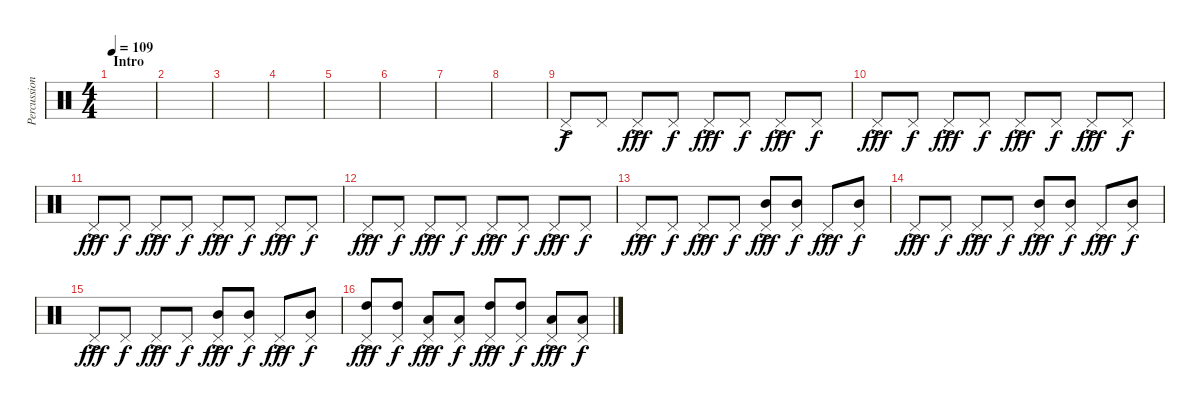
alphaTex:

\track ("Percussions" "Percussion") {instrument percussion}
\staff {score}
\articulation defaults
\ts (4 4)
\section ("" "Intro")
\tempo 109
\clef neutral
\ks c
|
|
|
|
|
|
|
|
"Pedal Hi-Hat (hit)"{ac}.8 "Pedal Hi-Hat (hit)".8{dy f} "Pedal Hi-Hat (hit)"{ac}.8{dy fff} "Pedal Hi-Hat (hit)".8{dy f} "Pedal Hi-Hat (hit)"{ac}.8{dy fff} "Pedal Hi-Hat (hit)".8{dy f} "Pedal Hi-Hat (hit)"{ac}.8{dy fff} "Pedal Hi-Hat (hit)".8{dy f} |
"Pedal Hi-Hat (hit)"{ac}.8{dy fff} "Pedal Hi-Hat (hit)".8{dy f} "Pedal Hi-Hat (hit)"{ac}.8{dy fff} "Pedal Hi-Hat (hit)".8{dy f} "Pedal Hi-Hat (hit)"{ac}.8{dy fff} "Pedal Hi-Hat (hit)".8{dy f} "Pedal Hi-Hat (hit)"{ac}.8{dy fff} "Pedal Hi-Hat (hit)".8{dy f} |
"Pedal Hi-Hat (hit)"{ac}.8{dy fff} "Pedal Hi-Hat (hit)".8{dy f} "Pedal Hi-Hat (hit)"{ac}.8{dy fff} "Pedal Hi-Hat (hit)".8{dy f} "Pedal Hi-Hat (hit)"{ac}.8{dy fff} "Pedal Hi-Hat (hit)".8{dy f} "Pedal Hi-Hat (hit)"{ac}.8{dy fff} "Pedal Hi-Hat (hit)".8{dy f} |
"Pedal Hi-Hat (hit)"{ac}.8{dy fff} "Pedal Hi-Hat (hit)".8{dy f} "Pedal Hi-Hat (hit)"{ac}.8{dy fff} "Pedal Hi-Hat (hit)".8{dy f} "Pedal Hi-Hat (hit)"{ac}.8{dy fff} "Pedal Hi-Hat (hit)".8{dy f} "Pedal Hi-Hat (hit)"{ac}.8{dy fff} "Pedal Hi-Hat (hit)".8{dy f} |
"Pedal Hi-Hat (hit)"{ac}.8{dy fff} "Pedal Hi-Hat (hit)".8{dy f} "Pedal Hi-Hat (hit)"{ac}.8{dy fff} "Pedal Hi-Hat (hit)".8{dy f} ("Pedal Hi-Hat (hit)"{ac} "Mid Tom (hit)").8{dy fff} ("Pedal Hi-Hat (hit)" "Mid Tom (hit)").8{dy f} "Pedal Hi-Hat (hit)"{ac}.8{dy fff} ("Pedal Hi-Hat (hit)" "Mid Tom (hit)").8{dy f} |
"Pedal Hi-Hat (hit)"{ac}.8{dy fff} "Pedal Hi-Hat (hit)".8{dy f} "Pedal Hi-Hat (hit)"{ac}.8{dy fff} "Pedal Hi-Hat (hit)".8{dy f} ("Pedal Hi-Hat (hit)"{ac} "Mid Tom (hit)").8{dy fff} ("Pedal Hi-Hat (hit)" "Mid Tom (hit)").8{dy f} "Pedal Hi-Hat (hit)"{ac}.8{dy fff} ("Pedal Hi-Hat (hit)" "Mid Tom (hit)").8{dy f} |
"Pedal Hi-Hat (hit)"{ac}.8{dy fff} "Pedal Hi-Hat (hit)".8{dy f} "Pedal Hi-Hat (hit)"{ac}.8{dy fff} "Pedal Hi-Hat (hit)".8{dy f} ("Pedal Hi-Hat (hit)"{ac} "Mid Tom (hit)").8{dy fff} ("Pedal Hi-Hat (hit)" "Mid Tom (hit)").8{dy f} "Pedal Hi-Hat (hit)"{ac}.8{dy fff} ("Pedal Hi-Hat (hit)" "Mid Tom (hit)").8{dy f} |
("Pedal Hi-Hat (hit)"{ac} "High Tom (hit)").8{dy fff} ("Pedal Hi-Hat (hit)" "High Tom (hit)").8{dy f} ("Pedal Hi-Hat (hit)"{ac} "Low Tom (hit)").8{dy fff} ("Pedal Hi-Hat (hit)" "Low Tom (hit)").8{dy f} ("Pedal Hi-Hat (hit)"{ac} "High Tom (hit)").8{dy fff} ("Pedal Hi-Hat (hit)" "High Tom (hit)").8{dy f} ("Pedal Hi-Hat (hit)"{ac} "Low Tom (hit)").8{dy fff} ("Pedal Hi-Hat (hit)" "Low Tom (hit)").8{dy f}
